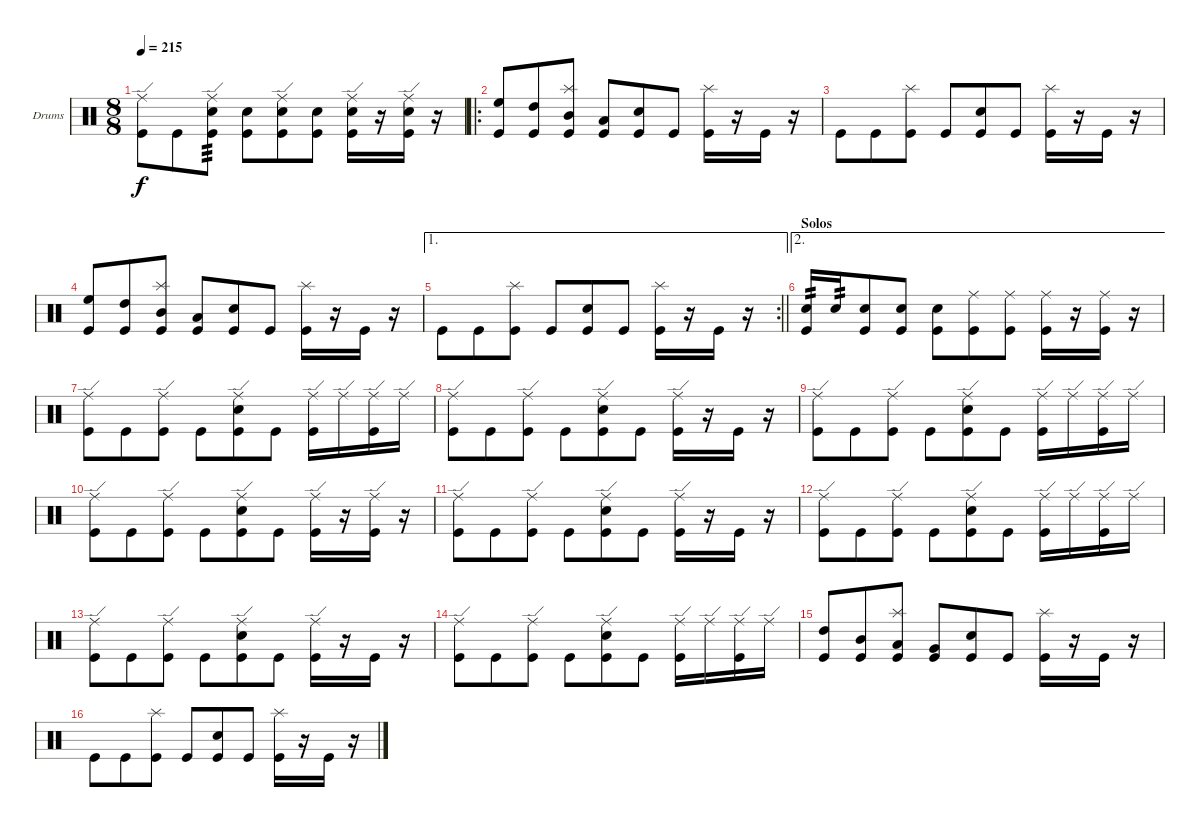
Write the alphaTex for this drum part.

\bracketExtendMode groupsimilarinstruments
\firstSystemTrackNameOrientation horizontal
\otherSystemsTrackNameOrientation horizontal
\track ("Dave McClain" "Drums") {instrument percussion}
\staff {score}
\articulation defaults
\ts (8 8)
\tempo 215
\clef neutral
\ks c
("Ride (edge)" "Kick (hit)").8{dy f} "Kick (hit)".8 ("Ride (edge)" "Snare (hit) 2" "Kick (hit)").8{tp 3} ("Snare (hit) 2" "Kick (hit)").8 ("Ride (edge)" "Snare (hit) 2" "Kick (hit)").8 ("Snare (hit) 2" "Kick (hit)").8 ("Ride (edge)" "Snare (hit) 2" "Kick (hit)").16 r.16 ("Ride (edge)" "Snare (hit) 2" "Kick (hit)").16 r.16 |
\ro
("High Floor Tom (hit)" "Kick (hit)").8 ("High Tom (hit)" "Kick (hit)").8 ("Splash (hit)" "Mid Tom (hit)" "Kick (hit)").8 ("Low Tom (hit)" "Kick (hit)").8 ("Snare (hit) 2" "Kick (hit)").8 "Kick (hit)".8 ("Splash (hit)" "Kick (hit)").16 r.16 "Kick (hit)".16 r.16 |
"Kick (hit)".8 "Kick (hit)".8 ("Splash (hit)" "Kick (hit)").8 "Kick (hit)".8 ("Snare (hit) 2" "Kick (hit)").8 "Kick (hit)".8 ("Splash (hit)" "Kick (hit)").16 r.16 "Kick (hit)".16 r.16 |
("High Floor Tom (hit)" "Kick (hit)").8 ("High Tom (hit)" "Kick (hit)").8 ("Splash (hit)" "Mid Tom (hit)" "Kick (hit)").8 ("Low Tom (hit)" "Kick (hit)").8 ("Snare (hit) 2" "Kick (hit)").8 "Kick (hit)".8 ("Splash (hit)" "Kick (hit)").16 r.16 "Kick (hit)".16 r.16 |
\ae 1
\rc 2
\barLineRight lightlight "Kick (hit)".8 "Kick (hit)".8
("Splash (hit)" "Kick (hit)").8 "Kick (hit)".8 ("Snare (hit) 2" "Kick (hit)").8 "Kick (hit)".8 ("Splash (hit)" "Kick (hit)").16 r.16 "Kick (hit)".16 r.16 |
\ae 2
\section ("" "Solos")
("Snare (hit) 2" "Kick (hit)").16{tp 2} "Snare (hit) 2".16{tp 2} ("Snare (hit) 2" "Kick (hit)").8 ("Snare (hit) 2" "Kick (hit)").8 ("Snare (hit) 2" "Kick (hit)").8 ("Ride (middle)" "Kick (hit)").8 ("Ride (middle)" "Kick (hit)").8 ("Ride (middle)" "Kick (hit)").16 r.16 ("Ride (middle)" "Kick (hit)").16 r.16 |
("Ride (edge)" "Kick (hit)").8 "Kick (hit)".8 ("Ride (edge)" "Kick (hit)").8 "Kick (hit)".8 ("Ride (edge)" "Snare (hit) 2" "Kick (hit)").8 "Kick (hit)".8 ("Ride (edge)" "Kick (hit)").16 "Ride (edge)".16 ("Ride (edge)" "Kick (hit)").16 "Ride (edge)".16 |
("Ride (edge)" "Kick (hit)").8 "Kick (hit)".8 ("Ride (edge)" "Kick (hit)").8 "Kick (hit)".8 ("Ride (edge)" "Snare (hit) 2" "Kick (hit)").8 "Kick (hit)".8 ("Ride (edge)" "Kick (hit)").16 r.16 "Kick (hit)".16 r.16 |
("Ride (edge)" "Kick (hit)").8 "Kick (hit)".8 ("Ride (edge)" "Kick (hit)").8 "Kick (hit)".8 ("Ride (edge)" "Snare (hit) 2" "Kick (hit)").8 "Kick (hit)".8 ("Ride (edge)" "Kick (hit)").16 "Ride (edge)".16 ("Ride (edge)" "Kick (hit)").16 "Ride (edge)".16 |
("Ride (edge)" "Kick (hit)").8 "Kick (hit)".8 ("Ride (edge)" "Kick (hit)").8 "Kick (hit)".8 ("Ride (edge)" "Snare (hit) 2" "Kick (hit)").8 "Kick (hit)".8 ("Ride (edge)" "Kick (hit)").16 r.16 ("Ride (edge)" "Kick (hit)").16 r.16 |
("Ride (edge)" "Kick (hit)").8 "Kick (hit)".8 ("Ride (edge)" "Kick (hit)").8 "Kick (hit)".8 ("Ride (edge)" "Snare (hit) 2" "Kick (hit)").8 "Kick (hit)".8 ("Ride (edge)" "Kick (hit)").16 r.16 "Kick (hit)".16 r.16 |
("Ride (edge)" "Kick (hit)").8 "Kick (hit)".8 ("Ride (edge)" "Kick (hit)").8 "Kick (hit)".8 ("Ride (edge)" "Snare (hit) 2" "Kick (hit)").8 "Kick (hit)".8 ("Ride (edge)" "Kick (hit)").16 "Ride (edge)".16 ("Ride (edge)" "Kick (hit)").16 "Ride (edge)".16 |
("Ride (edge)" "Kick (hit)").8 "Kick (hit)".8 ("Ride (edge)" "Kick (hit)").8 "Kick (hit)".8 ("Ride (edge)" "Snare (hit) 2" "Kick (hit)").8 "Kick (hit)".8 ("Ride (edge)" "Kick (hit)").16 r.16 "Kick (hit)".16 r.16 |
("Ride (edge)" "Kick (hit)").8 "Kick (hit)".8 ("Ride (edge)" "Kick (hit)").8 "Kick (hit)".8 ("Ride (edge)" "Snare (hit) 2" "Kick (hit)").8 "Kick (hit)".8 ("Ride (edge)" "Kick (hit)").16 "Ride (edge)".16 ("Ride (edge)" "Kick (hit)").16 "Ride (edge)".16 |
("High Tom (hit)" "Kick (hit)").8 ("Mid Tom (hit)" "Kick (hit)").8 ("Splash (hit)" "Low Tom (hit)" "Kick (hit)").8 ("Very Low Tom (hit)" "Kick (hit)").8 ("Snare (hit) 2" "Kick (hit)").8 "Kick (hit)".8 ("Splash (hit)" "Kick (hit)").16 r.16 "Kick (hit)".16 r.16 |
"Kick (hit)".8 "Kick (hit)".8 ("Splash (hit)" "Kick (hit)").8 "Kick (hit)".8 ("Snare (hit) 2" "Kick (hit)").8 "Kick (hit)".8 ("Splash (hit)" "Kick (hit)").16 r.16 "Kick (hit)".16 r.16
